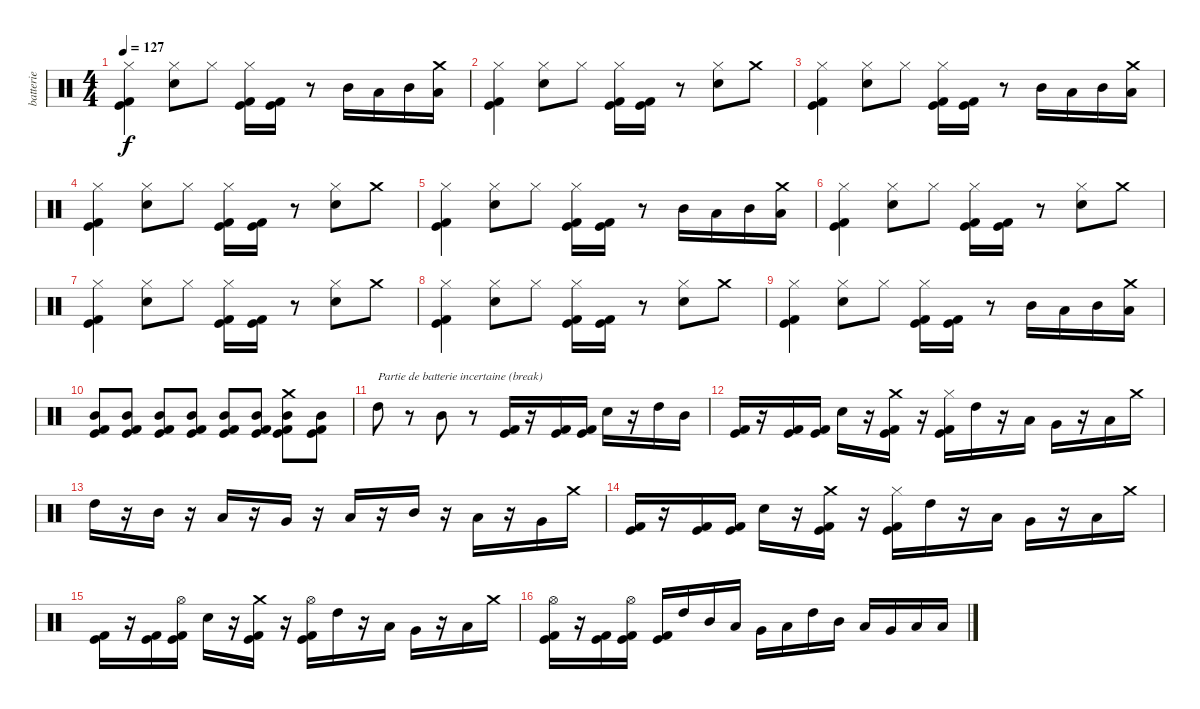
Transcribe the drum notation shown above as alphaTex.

\track ("batterie" "batterie") {instrument percussion}
\staff {score}
\articulation defaults
\ts (4 4)
\tempo 127
\clef neutral
\ks c
("Hi-Hat (closed)" "Kick (hit) 2" "Kick (hit)").4{dy f} ("Hi-Hat (closed)" "Electric Snare (hit)").8 "Hi-Hat (closed)".8 ("Hi-Hat (closed)" "Kick (hit) 2" "Kick (hit)").16 ("Kick (hit) 2" "Kick (hit)").16 r.8 "Mid Tom (hit)".16 "Low Tom (hit)".16 "Mid Tom (hit)".16 ("Crash medium (hit)" "Low Tom (hit)").16 |
("Hi-Hat (closed)" "Kick (hit) 2" "Kick (hit)").4 ("Hi-Hat (closed)" "Electric Snare (hit)").8 "Hi-Hat (closed)".8 ("Hi-Hat (closed)" "Kick (hit) 2" "Kick (hit)").16 ("Kick (hit) 2" "Kick (hit)").16 r.8 ("Hi-Hat (closed)" "Electric Snare (hit)").8 "Crash medium (hit)".8 |
("Hi-Hat (closed)" "Kick (hit) 2" "Kick (hit)").4 ("Hi-Hat (closed)" "Electric Snare (hit)").8 "Hi-Hat (closed)".8 ("Hi-Hat (closed)" "Kick (hit) 2" "Kick (hit)").16 ("Kick (hit) 2" "Kick (hit)").16 r.8 "Mid Tom (hit)".16 "Low Tom (hit)".16 "Mid Tom (hit)".16 ("Crash medium (hit)" "Low Tom (hit)").16 |
("Hi-Hat (closed)" "Kick (hit) 2" "Kick (hit)").4 ("Hi-Hat (closed)" "Electric Snare (hit)").8 "Hi-Hat (closed)".8 ("Hi-Hat (closed)" "Kick (hit) 2" "Kick (hit)").16 ("Kick (hit) 2" "Kick (hit)").16 r.8 ("Hi-Hat (closed)" "Electric Snare (hit)").8 "Crash medium (hit)".8 |
("Hi-Hat (closed)" "Kick (hit) 2" "Kick (hit)").4 ("Hi-Hat (closed)" "Electric Snare (hit)").8 "Hi-Hat (closed)".8 ("Hi-Hat (closed)" "Kick (hit) 2" "Kick (hit)").16 ("Kick (hit) 2" "Kick (hit)").16 r.8 "Mid Tom (hit)".16 "Low Tom (hit)".16 "Mid Tom (hit)".16 ("Crash medium (hit)" "Low Tom (hit)").16 |
("Hi-Hat (closed)" "Kick (hit) 2" "Kick (hit)").4 ("Hi-Hat (closed)" "Electric Snare (hit)").8 "Hi-Hat (closed)".8 ("Hi-Hat (closed)" "Kick (hit) 2" "Kick (hit)").16 ("Kick (hit) 2" "Kick (hit)").16 r.8 ("Hi-Hat (closed)" "Electric Snare (hit)").8 "Crash medium (hit)".8 |
("Hi-Hat (closed)" "Kick (hit) 2" "Kick (hit)").4 ("Hi-Hat (closed)" "Electric Snare (hit)").8 "Hi-Hat (closed)".8 ("Hi-Hat (closed)" "Kick (hit) 2" "Kick (hit)").16 ("Kick (hit) 2" "Kick (hit)").16 r.8 ("Hi-Hat (closed)" "Electric Snare (hit)").8 "Crash medium (hit)".8 |
("Hi-Hat (closed)" "Kick (hit) 2" "Kick (hit)").4 ("Hi-Hat (closed)" "Electric Snare (hit)").8 "Hi-Hat (closed)".8 ("Hi-Hat (closed)" "Kick (hit) 2" "Kick (hit)").16 ("Kick (hit) 2" "Kick (hit)").16 r.8 ("Hi-Hat (closed)" "Electric Snare (hit)").8 "Crash medium (hit)".8 |
("Hi-Hat (closed)" "Kick (hit) 2" "Kick (hit)").4 ("Hi-Hat (closed)" "Electric Snare (hit)").8 "Hi-Hat (closed)".8 ("Hi-Hat (closed)" "Kick (hit) 2" "Kick (hit)").16 ("Kick (hit) 2" "Kick (hit)").16 r.8 "Mid Tom (hit)".16 "Low Tom (hit)".16 "Mid Tom (hit)".16 ("Crash medium (hit)" "Low Tom (hit)").16 |
("Mid Tom (hit)" "Kick (hit) 2" "Kick (hit)").8 ("Mid Tom (hit)" "Kick (hit) 2" "Kick (hit)").8 ("Mid Tom (hit)" "Kick (hit) 2" "Kick (hit)").8 ("Mid Tom (hit)" "Kick (hit) 2" "Kick (hit)").8 ("Mid Tom (hit)" "Kick (hit) 2" "Kick (hit)").8 ("Mid Tom (hit)" "Kick (hit) 2" "Kick (hit)").8 ("Crash medium (hit)" "Mid Tom (hit)" "Kick (hit) 2" "Kick (hit)").8 ("Mid Tom (hit)" "Kick (hit) 2" "Kick (hit)").8 |
"High Tom (hit)".8{txt "Partie de batterie incertaine (break)"} r.8 "Mid Tom (hit)".8 r.8 ("Kick (hit) 2" "Kick (hit)").16 r.16 ("Kick (hit) 2" "Kick (hit)").16 ("Kick (hit) 2" "Kick (hit)").16 "Electric Snare (hit)".16 r.16 "High Tom (hit)".16 "Mid Tom (hit)".16 |
("Kick (hit) 2" "Kick (hit)").16 r.16 ("Kick (hit) 2" "Kick (hit)").16 ("Kick (hit) 2" "Kick (hit)").16 "Electric Snare (hit)".16 r.16 ("Crash medium (hit)" "Kick (hit) 2" "Kick (hit)").16 r.16 ("Hi-Hat (closed)" "Kick (hit) 2" "Kick (hit)").16 "High Tom (hit)".16 r.16 "Low Tom (hit)".16 "Very Low Tom (hit)".16 r.16 "Low Tom (hit)".16 "Crash medium (hit)".16 |
"High Tom (hit)".16 r.16 "Mid Tom (hit)".16 r.16 "Low Tom (hit)".16 r.16 "Very Low Tom (hit)".16 r.16 "Low Floor Tom (hit)".16 r.16 "Mid Tom (hit)".16 r.16 "Low Tom (hit)".16 r.16 "Very Low Tom (hit)".16 "Crash medium (hit)".16 |
("Kick (hit) 2" "Kick (hit)").16 r.16 ("Kick (hit) 2" "Kick (hit)").16 ("Kick (hit) 2" "Kick (hit)").16 "Electric Snare (hit)".16 r.16 ("Crash medium (hit)" "Kick (hit) 2" "Kick (hit)").16 r.16 ("Hi-Hat (closed)" "Kick (hit) 2" "Kick (hit)").16 "High Tom (hit)".16 r.16 "Low Tom (hit)".16 "Very Low Tom (hit)".16 r.16 "Low Tom (hit)".16 "Crash medium (hit)".16 |
("Kick (hit) 2" "Kick (hit)").16 r.16 ("Kick (hit) 2" "Kick (hit)").16 ("Hi-Hat (open)" "Kick (hit) 2" "Kick (hit)").16 "Electric Snare (hit)".16 r.16 ("Crash medium (hit)" "Kick (hit) 2" "Kick (hit)").16 r.16 ("Hi-Hat (open)" "Kick (hit) 2" "Kick (hit)").16 "High Tom (hit)".16 r.16 "Low Tom (hit)".16 "Very Low Tom (hit)".16 r.16 "Low Tom (hit)".16 "Crash medium (hit)".16 |
("Hi-Hat (open)" "Kick (hit) 2" "Kick (hit)").16 r.16 ("Kick (hit) 2" "Kick (hit)").16 ("Hi-Hat (open)" "Kick (hit) 2" "Kick (hit)").16 ("Kick (hit) 2" "Kick (hit)").16 "High Tom (hit)".16 "Mid Tom (hit)".16 "Low Tom (hit)".16 "Very Low Tom (hit)".16 "Low Floor Tom (hit)".16 "High Tom (hit)".16 "Mid Tom (hit)".16 "Low Tom (hit)".16 "Very Low Tom (hit)".16 "Low Floor Tom (hit)".16 "Low Floor Tom (hit)".16
